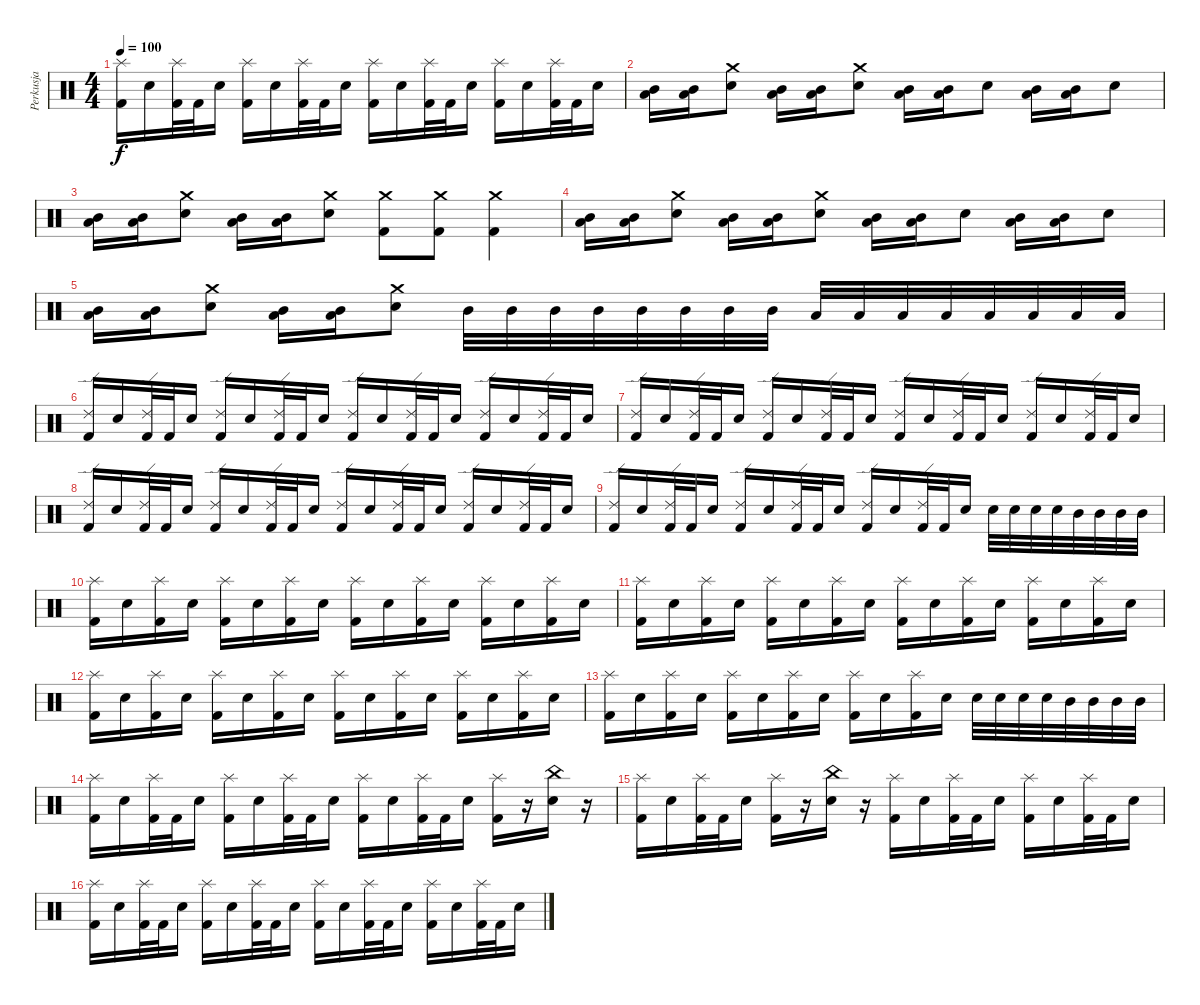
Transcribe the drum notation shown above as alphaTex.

\track ("Perkusja" "Perkusja") {instrument percussion}
\staff {score}
\articulation defaults
\ts (4 4)
\tempo 100
\clef neutral
\ks c
("Splash (hit)" "Kick (hit) 2").16{dy f} "Snare (hit) 2".16 ("Splash (hit)" "Kick (hit) 2").32 "Kick (hit) 2".32 "Snare (hit) 2".16 ("Splash (hit)" "Kick (hit) 2").16 "Snare (hit) 2".16 ("Splash (hit)" "Kick (hit) 2").32 "Kick (hit) 2".32 "Snare (hit) 2".16 ("Splash (hit)" "Kick (hit) 2").16 "Snare (hit) 2".16 ("Splash (hit)" "Kick (hit) 2").32 "Kick (hit) 2".32 "Snare (hit) 2".16 ("Splash (hit)" "Kick (hit) 2").16 "Snare (hit) 2".16 ("Splash (hit)" "Kick (hit) 2").32 "Kick (hit) 2".32 "Snare (hit) 2".16 |
("Mid Tom (hit)" "Low Tom (hit)").16 ("Mid Tom (hit)" "Low Tom (hit)").16 ("Crash medium (hit)" "Snare (hit) 2").8 ("Mid Tom (hit)" "Low Tom (hit)").16 ("Mid Tom (hit)" "Low Tom (hit)").16 ("Crash medium (hit)" "Snare (hit) 2").8 ("Mid Tom (hit)" "Low Tom (hit)").16 ("Mid Tom (hit)" "Low Tom (hit)").16 "Snare (hit) 2".8 ("Mid Tom (hit)" "Low Tom (hit)").16 ("Mid Tom (hit)" "Low Tom (hit)").16 "Snare (hit) 2".8 |
("Mid Tom (hit)" "Low Tom (hit)").16 ("Mid Tom (hit)" "Low Tom (hit)").16 ("Crash medium (hit)" "Snare (hit) 2").8 ("Mid Tom (hit)" "Low Tom (hit)").16 ("Mid Tom (hit)" "Low Tom (hit)").16 ("Crash medium (hit)" "Snare (hit) 2").8 ("Crash medium (hit)" "Kick (hit) 2").8 ("Crash medium (hit)" "Kick (hit) 2").8 ("Crash medium (hit)" "Kick (hit) 2").4 |
("Mid Tom (hit)" "Low Tom (hit)").16 ("Mid Tom (hit)" "Low Tom (hit)").16 ("Crash medium (hit)" "Snare (hit) 2").8 ("Mid Tom (hit)" "Low Tom (hit)").16 ("Mid Tom (hit)" "Low Tom (hit)").16 ("Crash medium (hit)" "Snare (hit) 2").8 ("Mid Tom (hit)" "Low Tom (hit)").16 ("Mid Tom (hit)" "Low Tom (hit)").16 "Snare (hit) 2".8 ("Mid Tom (hit)" "Low Tom (hit)").16 ("Mid Tom (hit)" "Low Tom (hit)").16 "Snare (hit) 2".8 |
("Mid Tom (hit)" "Low Tom (hit)").16 ("Mid Tom (hit)" "Low Tom (hit)").16 ("Crash medium (hit)" "Snare (hit) 2").8 ("Mid Tom (hit)" "Low Tom (hit)").16 ("Mid Tom (hit)" "Low Tom (hit)").16 ("Crash medium (hit)" "Snare (hit) 2").8 "Mid Tom (hit)".32 "Mid Tom (hit)".32 "Mid Tom (hit)".32 "Mid Tom (hit)".32 "Mid Tom (hit)".32 "Mid Tom (hit)".32 "Mid Tom (hit)".32 "Mid Tom (hit)".32 "Low Tom (hit)".32 "Low Tom (hit)".32 "Low Tom (hit)".32 "Low Tom (hit)".32 "Low Tom (hit)".32 "Low Tom (hit)".32 "Low Tom (hit)".32 "Low Tom (hit)".32 |
("Ride (edge) 2" "Kick (hit) 2").16 "Snare (hit) 2".16 ("Ride (edge) 2" "Kick (hit) 2").32 "Kick (hit) 2".32 "Snare (hit) 2".16 ("Ride (edge) 2" "Kick (hit) 2").16 "Snare (hit) 2".16 ("Ride (edge) 2" "Kick (hit) 2").32 "Kick (hit) 2".32 "Snare (hit) 2".16 ("Ride (edge) 2" "Kick (hit) 2").16 "Snare (hit) 2".16 ("Ride (edge) 2" "Kick (hit) 2").32 "Kick (hit) 2".32 "Snare (hit) 2".16 ("Ride (edge) 2" "Kick (hit) 2").16 "Snare (hit) 2".16 ("Ride (edge) 2" "Kick (hit) 2").32 "Kick (hit) 2".32 "Snare (hit) 2".16 |
("Ride (edge) 2" "Kick (hit) 2").16 "Snare (hit) 2".16 ("Ride (edge) 2" "Kick (hit) 2").32 "Kick (hit) 2".32 "Snare (hit) 2".16 ("Ride (edge) 2" "Kick (hit) 2").16 "Snare (hit) 2".16 ("Ride (edge) 2" "Kick (hit) 2").32 "Kick (hit) 2".32 "Snare (hit) 2".16 ("Ride (edge) 2" "Kick (hit) 2").16 "Snare (hit) 2".16 ("Ride (edge) 2" "Kick (hit) 2").32 "Kick (hit) 2".32 "Snare (hit) 2".16 ("Ride (edge) 2" "Kick (hit) 2").16 "Snare (hit) 2".16 ("Ride (edge) 2" "Kick (hit) 2").32 "Kick (hit) 2".32 "Snare (hit) 2".16 |
("Ride (edge) 2" "Kick (hit) 2").16 "Snare (hit) 2".16 ("Ride (edge) 2" "Kick (hit) 2").32 "Kick (hit) 2".32 "Snare (hit) 2".16 ("Ride (edge) 2" "Kick (hit) 2").16 "Snare (hit) 2".16 ("Ride (edge) 2" "Kick (hit) 2").32 "Kick (hit) 2".32 "Snare (hit) 2".16 ("Ride (edge) 2" "Kick (hit) 2").16 "Snare (hit) 2".16 ("Ride (edge) 2" "Kick (hit) 2").32 "Kick (hit) 2".32 "Snare (hit) 2".16 ("Ride (edge) 2" "Kick (hit) 2").16 "Snare (hit) 2".16 ("Ride (edge) 2" "Kick (hit) 2").32 "Kick (hit) 2".32 "Snare (hit) 2".16 |
("Ride (edge) 2" "Kick (hit) 2").16 "Snare (hit) 2".16 ("Ride (edge) 2" "Kick (hit) 2").32 "Kick (hit) 2".32 "Snare (hit) 2".16 ("Ride (edge) 2" "Kick (hit) 2").16 "Snare (hit) 2".16 ("Ride (edge) 2" "Kick (hit) 2").32 "Kick (hit) 2".32 "Snare (hit) 2".16 ("Ride (edge) 2" "Kick (hit) 2").16 "Snare (hit) 2".16 ("Ride (edge) 2" "Kick (hit) 2").32 "Kick (hit) 2".32 "Snare (hit) 2".16 "Snare (hit) 2".32 "Snare (hit) 2".32 "Snare (hit) 2".32 "Snare (hit) 2".32 "Mid Tom (hit)".32 "Mid Tom (hit)".32 "Mid Tom (hit)".32 "Mid Tom (hit)".32 |
("Splash (hit)" "Kick (hit) 2").16 "Snare (hit) 2".16 ("Splash (hit)" "Kick (hit) 2").16 "Snare (hit) 2".16 ("Splash (hit)" "Kick (hit) 2").16 "Snare (hit) 2".16 ("Splash (hit)" "Kick (hit) 2").16 "Snare (hit) 2".16 ("Splash (hit)" "Kick (hit) 2").16 "Snare (hit) 2".16 ("Splash (hit)" "Kick (hit) 2").16 "Snare (hit) 2".16 ("Splash (hit)" "Kick (hit) 2").16 "Snare (hit) 2".16 ("Splash (hit)" "Kick (hit) 2").16 "Snare (hit) 2".16 |
("Splash (hit)" "Kick (hit) 2").16 "Snare (hit) 2".16 ("Splash (hit)" "Kick (hit) 2").16 "Snare (hit) 2".16 ("Splash (hit)" "Kick (hit) 2").16 "Snare (hit) 2".16 ("Splash (hit)" "Kick (hit) 2").16 "Snare (hit) 2".16 ("Splash (hit)" "Kick (hit) 2").16 "Snare (hit) 2".16 ("Splash (hit)" "Kick (hit) 2").16 "Snare (hit) 2".16 ("Splash (hit)" "Kick (hit) 2").16 "Snare (hit) 2".16 ("Splash (hit)" "Kick (hit) 2").16 "Snare (hit) 2".16 |
("Splash (hit)" "Kick (hit) 2").16 "Snare (hit) 2".16 ("Splash (hit)" "Kick (hit) 2").16 "Snare (hit) 2".16 ("Splash (hit)" "Kick (hit) 2").16 "Snare (hit) 2".16 ("Splash (hit)" "Kick (hit) 2").16 "Snare (hit) 2".16 ("Splash (hit)" "Kick (hit) 2").16 "Snare (hit) 2".16 ("Splash (hit)" "Kick (hit) 2").16 "Snare (hit) 2".16 ("Splash (hit)" "Kick (hit) 2").16 "Snare (hit) 2".16 ("Splash (hit)" "Kick (hit) 2").16 "Snare (hit) 2".16 |
("Splash (hit)" "Kick (hit) 2").16 "Snare (hit) 2".16 ("Splash (hit)" "Kick (hit) 2").16 "Snare (hit) 2".16 ("Splash (hit)" "Kick (hit) 2").16 "Snare (hit) 2".16 ("Splash (hit)" "Kick (hit) 2").16 "Snare (hit) 2".16 ("Splash (hit)" "Kick (hit) 2").16 "Snare (hit) 2".16 ("Splash (hit)" "Kick (hit) 2").16 "Snare (hit) 2".16 "Snare (hit) 2".32 "Snare (hit) 2".32 "Snare (hit) 2".32 "Snare (hit) 2".32 "Mid Tom (hit)".32 "Mid Tom (hit)".32 "Mid Tom (hit)".32 "Mid Tom (hit)".32 |
("Splash (hit)" "Kick (hit) 2").16 "Snare (hit) 2".16 ("Splash (hit)" "Kick (hit) 2").32 "Kick (hit) 2".32 "Snare (hit) 2".16 ("Splash (hit)" "Kick (hit) 2").16 "Snare (hit) 2".16 ("Splash (hit)" "Kick (hit) 2").32 "Kick (hit) 2".32 "Snare (hit) 2".16 ("Splash (hit)" "Kick (hit) 2").16 "Snare (hit) 2".16 ("Splash (hit)" "Kick (hit) 2").32 "Kick (hit) 2".32 "Snare (hit) 2".16 ("Splash (hit)" "Kick (hit) 2").16 r.16 ("China (hit)" "Snare (hit) 2").16 r.16 |
("Splash (hit)" "Kick (hit) 2").16 "Snare (hit) 2".16 ("Splash (hit)" "Kick (hit) 2").32 "Kick (hit) 2".32 "Snare (hit) 2".16 ("Splash (hit)" "Kick (hit) 2").16 r.16 ("China (hit)" "Snare (hit) 2").16 r.16 ("Splash (hit)" "Kick (hit) 2").16 "Snare (hit) 2".16 ("Splash (hit)" "Kick (hit) 2").32 "Kick (hit) 2".32 "Snare (hit) 2".16 ("Splash (hit)" "Kick (hit) 2").16 "Snare (hit) 2".16 ("Splash (hit)" "Kick (hit) 2").32 "Kick (hit) 2".32 "Snare (hit) 2".16 |
("Splash (hit)" "Kick (hit) 2").16 "Snare (hit) 2".16 ("Splash (hit)" "Kick (hit) 2").32 "Kick (hit) 2".32 "Snare (hit) 2".16 ("Splash (hit)" "Kick (hit) 2").16 "Snare (hit) 2".16 ("Splash (hit)" "Kick (hit) 2").32 "Kick (hit) 2".32 "Snare (hit) 2".16 ("Splash (hit)" "Kick (hit) 2").16 "Snare (hit) 2".16 ("Splash (hit)" "Kick (hit) 2").32 "Kick (hit) 2".32 "Snare (hit) 2".16 ("Splash (hit)" "Kick (hit) 2").16 "Snare (hit) 2".16 ("Splash (hit)" "Kick (hit) 2").32 "Kick (hit) 2".32 "Snare (hit) 2".16
